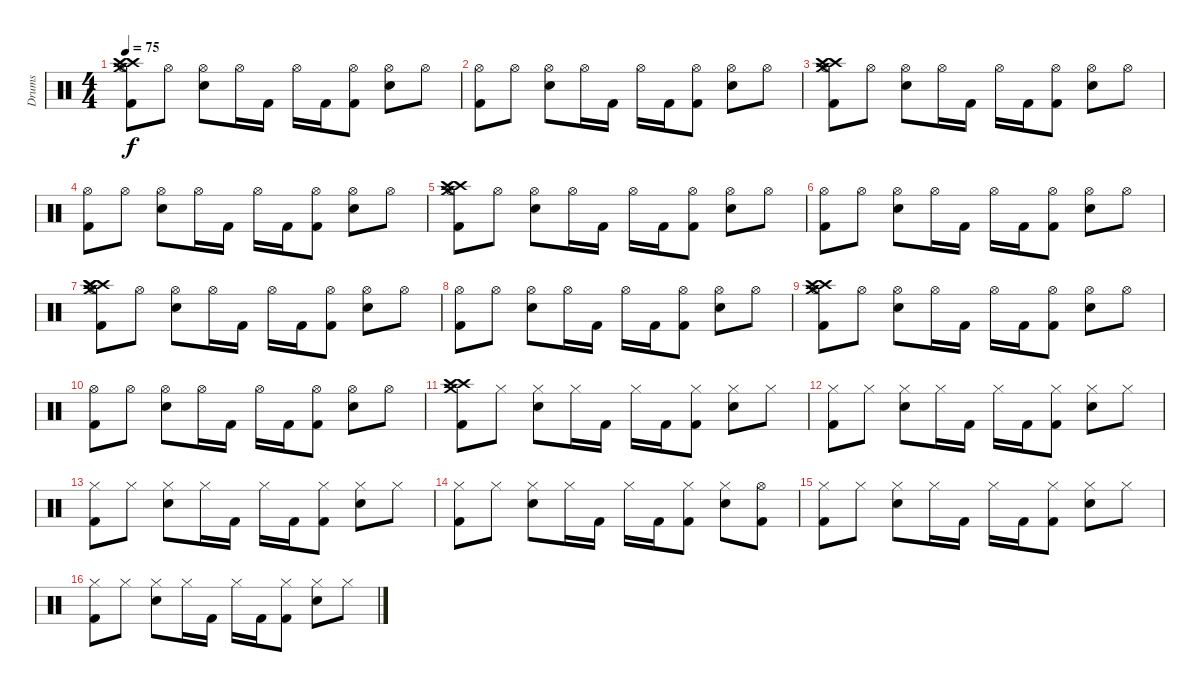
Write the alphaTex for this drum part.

\track ("Drums" "Drums") {instrument percussion}
\staff {score}
\articulation defaults
\ts (4 4)
\tempo 75
\clef neutral
\ks c
("Crash high (hit)" "Crash medium (hit)" "Crash high (hit)" "Hi-Hat (open)" "Kick (hit) 2").8{dy f} "Hi-Hat (open)".8 ("Hi-Hat (open)" "Electric Snare (hit)").8 "Hi-Hat (open)".16 "Kick (hit) 2".16 "Hi-Hat (open)".16 "Kick (hit) 2".16 ("Hi-Hat (open)" "Kick (hit) 2").8 ("Hi-Hat (open)" "Electric Snare (hit)").8 "Hi-Hat (open)".8 |
("Hi-Hat (open)" "Kick (hit) 2").8 "Hi-Hat (open)".8 ("Hi-Hat (open)" "Electric Snare (hit)").8 "Hi-Hat (open)".16 "Kick (hit) 2".16 "Hi-Hat (open)".16 "Kick (hit) 2".16 ("Hi-Hat (open)" "Kick (hit) 2").8 ("Hi-Hat (open)" "Electric Snare (hit)").8 "Hi-Hat (open)".8 |
("Crash high (hit)" "Crash medium (hit)" "Crash high (hit)" "Hi-Hat (open)" "Kick (hit) 2").8 "Hi-Hat (open)".8 ("Hi-Hat (open)" "Electric Snare (hit)").8 "Hi-Hat (open)".16 "Kick (hit) 2".16 "Hi-Hat (open)".16 "Kick (hit) 2".16 ("Hi-Hat (open)" "Kick (hit) 2").8 ("Hi-Hat (open)" "Electric Snare (hit)").8 "Hi-Hat (open)".8 |
("Hi-Hat (open)" "Kick (hit) 2").8 "Hi-Hat (open)".8 ("Hi-Hat (open)" "Electric Snare (hit)").8 "Hi-Hat (open)".16 "Kick (hit) 2".16 "Hi-Hat (open)".16 "Kick (hit) 2".16 ("Hi-Hat (open)" "Kick (hit) 2").8 ("Hi-Hat (open)" "Electric Snare (hit)").8 "Hi-Hat (open)".8 |
("Crash high (hit)" "Crash medium (hit)" "Crash high (hit)" "Hi-Hat (open)" "Kick (hit) 2").8 "Hi-Hat (open)".8 ("Hi-Hat (open)" "Electric Snare (hit)").8 "Hi-Hat (open)".16 "Kick (hit) 2".16 "Hi-Hat (open)".16 "Kick (hit) 2".16 ("Hi-Hat (open)" "Kick (hit) 2").8 ("Hi-Hat (open)" "Electric Snare (hit)").8 "Hi-Hat (open)".8 |
("Hi-Hat (open)" "Kick (hit) 2").8 "Hi-Hat (open)".8 ("Hi-Hat (open)" "Electric Snare (hit)").8 "Hi-Hat (open)".16 "Kick (hit) 2".16 "Hi-Hat (open)".16 "Kick (hit) 2".16 ("Hi-Hat (open)" "Kick (hit) 2").8 ("Hi-Hat (open)" "Electric Snare (hit)").8 "Hi-Hat (open)".8 |
("Crash high (hit)" "Crash medium (hit)" "Crash high (hit)" "Hi-Hat (open)" "Crash high (hit)" "Kick (hit) 2").8 "Hi-Hat (open)".8 ("Hi-Hat (open)" "Electric Snare (hit)").8 "Hi-Hat (open)".16 "Kick (hit) 2".16 "Hi-Hat (open)".16 "Kick (hit) 2".16 ("Hi-Hat (open)" "Kick (hit) 2").8 ("Hi-Hat (open)" "Electric Snare (hit)").8 "Hi-Hat (open)".8 |
("Hi-Hat (open)" "Kick (hit) 2").8 "Hi-Hat (open)".8 ("Hi-Hat (open)" "Electric Snare (hit)").8 "Hi-Hat (open)".16 "Kick (hit) 2".16 "Hi-Hat (open)".16 "Kick (hit) 2".16 ("Hi-Hat (open)" "Kick (hit) 2").8 ("Hi-Hat (open)" "Electric Snare (hit)").8 "Hi-Hat (open)".8 |
("Crash high (hit)" "Crash medium (hit)" "Crash high (hit)" "Hi-Hat (open)" "Kick (hit) 2").8 "Hi-Hat (open)".8 ("Hi-Hat (open)" "Electric Snare (hit)").8 "Hi-Hat (open)".16 "Kick (hit) 2".16 "Hi-Hat (open)".16 "Kick (hit) 2".16 ("Hi-Hat (open)" "Kick (hit) 2").8 ("Hi-Hat (open)" "Electric Snare (hit)").8 "Hi-Hat (open)".8 |
("Hi-Hat (open)" "Kick (hit) 2").8 "Hi-Hat (open)".8 ("Hi-Hat (open)" "Electric Snare (hit)").8 "Hi-Hat (open)".16 "Kick (hit) 2".16 "Hi-Hat (open)".16 "Kick (hit) 2".16 ("Hi-Hat (open)" "Kick (hit) 2").8 ("Hi-Hat (open)" "Electric Snare (hit)").8 "Hi-Hat (open)".8 |
("Crash high (hit)" "Crash medium (hit)" "Crash high (hit)" "Kick (hit) 2").8 "Hi-Hat (closed)".8 ("Hi-Hat (closed)" "Electric Snare (hit)").8 "Hi-Hat (closed)".16 "Kick (hit) 2".16 "Hi-Hat (closed)".16 "Kick (hit) 2".16 ("Hi-Hat (closed)" "Kick (hit) 2").8 ("Hi-Hat (closed)" "Electric Snare (hit)").8 "Hi-Hat (closed)".8 |
("Hi-Hat (closed)" "Kick (hit) 2").8 "Hi-Hat (closed)".8 ("Hi-Hat (closed)" "Electric Snare (hit)").8 "Hi-Hat (closed)".16 "Kick (hit) 2".16 "Hi-Hat (closed)".16 "Kick (hit) 2".16 ("Hi-Hat (closed)" "Kick (hit) 2").8 ("Hi-Hat (closed)" "Electric Snare (hit)").8 "Hi-Hat (closed)".8 |
("Hi-Hat (closed)" "Kick (hit) 2").8 "Hi-Hat (closed)".8 ("Hi-Hat (closed)" "Electric Snare (hit)").8 "Hi-Hat (closed)".16 "Kick (hit) 2".16 "Hi-Hat (closed)".16 "Kick (hit) 2".16 ("Hi-Hat (closed)" "Kick (hit) 2").8 ("Hi-Hat (closed)" "Electric Snare (hit)").8 "Hi-Hat (closed)".8 |
("Hi-Hat (closed)" "Kick (hit) 2").8 "Hi-Hat (closed)".8 ("Hi-Hat (closed)" "Electric Snare (hit)").8 "Hi-Hat (closed)".16 "Kick (hit) 2".16 "Hi-Hat (closed)".16 "Kick (hit) 2".16 ("Hi-Hat (closed)" "Kick (hit) 2").8 ("Hi-Hat (closed)" "Electric Snare (hit)").8 ("Hi-Hat (open)" "Kick (hit) 2").8 |
("Hi-Hat (closed)" "Kick (hit) 2").8 "Hi-Hat (closed)".8 ("Hi-Hat (closed)" "Electric Snare (hit)").8 "Hi-Hat (closed)".16 "Kick (hit) 2".16 "Hi-Hat (closed)".16 "Kick (hit) 2".16 ("Hi-Hat (closed)" "Kick (hit) 2").8 ("Hi-Hat (closed)" "Electric Snare (hit)").8 "Hi-Hat (closed)".8 |
("Hi-Hat (closed)" "Kick (hit) 2").8 "Hi-Hat (closed)".8 ("Hi-Hat (closed)" "Electric Snare (hit)").8 "Hi-Hat (closed)".16 "Kick (hit) 2".16 "Hi-Hat (closed)".16 "Kick (hit) 2".16 ("Hi-Hat (closed)" "Kick (hit) 2").8 ("Hi-Hat (closed)" "Electric Snare (hit)").8 "Hi-Hat (closed)".8
